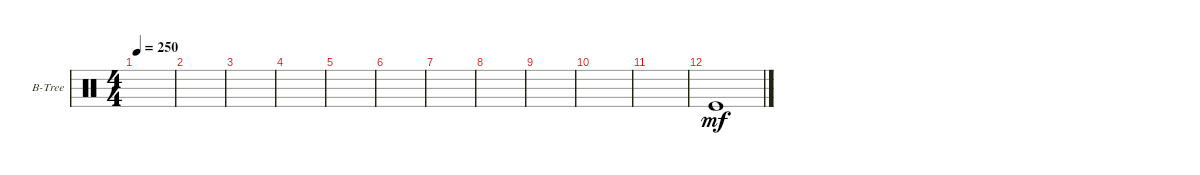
\defaultSystemsLayout 4
\bracketExtendMode groupsimilarinstruments
\firstSystemTrackNameOrientation horizontal
\otherSystemsTrackNameOrientation horizontal
\track ("Bell Tree" "B-Tree") {mute instrument percussion}
\staff {score}
\articulation defaults
\ts (4 4)
\tempo 250
\clef neutral
\scale
0.333333
\ks c
|
\scale
0.333333 |
\scale
0.333333 |
\scale
0.333333 |
\scale
0.333333 |
\scale
0.333333 |
\scale
0.333333 |
\scale
0.333333 |
\scale
0.333333 |
\scale
0.333333 |
\scale
0.333333 |
\scale
0.333333 "Kick (hit)".1{dy mf} |
\scale
0.333333 |
\scale
0.333333 |
\scale
0.333333 |
\scale
0.333333
